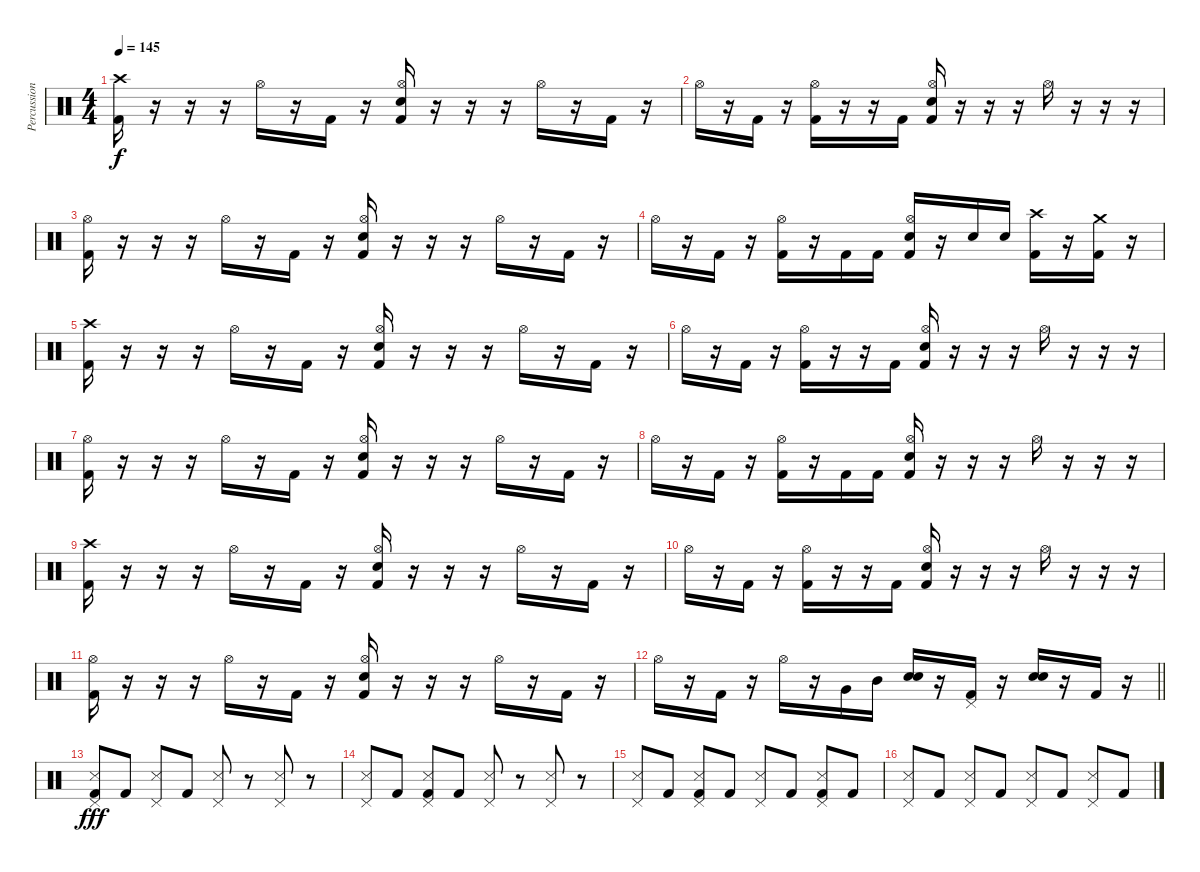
\track ("Percussions" "Percussion") {instrument percussion}
\staff {score}
\articulation defaults
\ts (4 4)
\tempo 145
\clef neutral
\ks c
("Crash high (hit)" "Kick (hit) 2").16{dy f} r.16 r.16 r.16 "Hi-Hat (open)".16 r.16 "Kick (hit) 2".16 r.16 ("Hi-Hat (open)" "Electric Snare (hit)" "Kick (hit) 2").16 r.16 r.16 r.16 "Hi-Hat (open)".16 r.16 "Kick (hit) 2".16 r.16 |
"Hi-Hat (open)".16 r.16 "Kick (hit) 2".16 r.16 ("Hi-Hat (open)" "Kick (hit) 2").16 r.16 r.16 "Kick (hit) 2".16 ("Hi-Hat (open)" "Electric Snare (hit)" "Kick (hit) 2").16 r.16 r.16 r.16 "Hi-Hat (open)".16 r.16 r.16 r.16 |
("Hi-Hat (open)" "Kick (hit) 2").16 r.16 r.16 r.16 "Hi-Hat (open)".16 r.16 "Kick (hit) 2".16 r.16 ("Hi-Hat (open)" "Electric Snare (hit)" "Kick (hit) 2").16 r.16 r.16 r.16 "Hi-Hat (open)".16 r.16 "Kick (hit) 2".16 r.16 |
"Hi-Hat (open)".16 r.16 "Kick (hit) 2".16 r.16 ("Hi-Hat (open)" "Kick (hit) 2").16 r.16 "Kick (hit) 2".16 "Kick (hit) 2".16 ("Hi-Hat (open)" "Electric Snare (hit)" "Kick (hit) 2").16 r.16 "Electric Snare (hit)".16 "Electric Snare (hit)".16 ("Crash high (hit)" "Kick (hit) 2").16 r.16 ("Crash medium (hit)" "Kick (hit) 2").16 r.16 |
("Crash high (hit)" "Kick (hit) 2").16 r.16 r.16 r.16 "Hi-Hat (open)".16 r.16 "Kick (hit) 2".16 r.16 ("Hi-Hat (open)" "Electric Snare (hit)" "Kick (hit) 2").16 r.16 r.16 r.16 "Hi-Hat (open)".16 r.16 "Kick (hit) 2".16 r.16 |
"Hi-Hat (open)".16 r.16 "Kick (hit) 2".16 r.16 ("Hi-Hat (open)" "Kick (hit) 2").16 r.16 r.16 "Kick (hit) 2".16 ("Hi-Hat (open)" "Electric Snare (hit)" "Kick (hit) 2").16 r.16 r.16 r.16 "Hi-Hat (open)".16 r.16 r.16 r.16 |
("Hi-Hat (open)" "Kick (hit) 2").16 r.16 r.16 r.16 "Hi-Hat (open)".16 r.16 "Kick (hit) 2".16 r.16 ("Hi-Hat (open)" "Electric Snare (hit)" "Kick (hit) 2").16 r.16 r.16 r.16 "Hi-Hat (open)".16 r.16 "Kick (hit) 2".16 r.16 |
"Hi-Hat (open)".16 r.16 "Kick (hit) 2".16 r.16 ("Hi-Hat (open)" "Kick (hit) 2").16 r.16 "Kick (hit) 2".16 "Kick (hit) 2".16 ("Hi-Hat (open)" "Electric Snare (hit)" "Kick (hit) 2").16 r.16 r.16 r.16 "Hi-Hat (open)".16 r.16 r.16 r.16 |
("Crash high (hit)" "Kick (hit) 2").16 r.16 r.16 r.16 "Hi-Hat (open)".16 r.16 "Kick (hit) 2".16 r.16 ("Hi-Hat (open)" "Electric Snare (hit)" "Kick (hit) 2").16 r.16 r.16 r.16 "Hi-Hat (open)".16 r.16 "Kick (hit) 2".16 r.16 |
"Hi-Hat (open)".16 r.16 "Kick (hit) 2".16 r.16 ("Hi-Hat (open)" "Kick (hit) 2").16 r.16 r.16 "Kick (hit) 2".16 ("Hi-Hat (open)" "Electric Snare (hit)" "Kick (hit) 2").16 r.16 r.16 r.16 "Hi-Hat (open)".16 r.16 r.16 r.16 |
("Hi-Hat (open)" "Kick (hit) 2").16 r.16 r.16 r.16 "Hi-Hat (open)".16 r.16 "Kick (hit) 2".16 r.16 ("Hi-Hat (open)" "Electric Snare (hit)" "Kick (hit) 2").16 r.16 r.16 r.16 "Hi-Hat (open)".16 r.16 "Kick (hit) 2".16 r.16 |
\barLineRight lightlight "Hi-Hat (open)".16
r.16 "Kick (hit) 2".16 r.16 "Hi-Hat (open)".16 r.16 "Very Low Tom (hit)".16 "Mid Tom (hit)".16 ("Snare (hit) 2" "Electric Snare (hit)").16 r.16 ("Pedal Hi-Hat (hit)" "Kick (hit) 2").16 r.16 ("Snare (hit) 2" "Electric Snare (hit)").16 r.16 "Kick (hit) 2".16 r.16 |
\section ("" "")
("Pedal Hi-Hat (hit)" "Snare (side stick) 3" "Kick (hit) 2").8{dy fff} "Kick (hit) 2".8 ("Pedal Hi-Hat (hit)" "Snare (side stick) 3").8 "Kick (hit) 2".8 ("Pedal Hi-Hat (hit)" "Snare (side stick) 3").8 r.8 ("Pedal Hi-Hat (hit)" "Snare (side stick) 3").8 r.8 |
("Pedal Hi-Hat (hit)" "Snare (side stick) 3").8 "Kick (hit) 2".8 ("Pedal Hi-Hat (hit)" "Snare (side stick) 3" "Kick (hit) 2").8 "Kick (hit) 2".8 ("Pedal Hi-Hat (hit)" "Snare (side stick) 3").8 r.8 ("Pedal Hi-Hat (hit)" "Snare (side stick) 3").8 r.8 |
("Pedal Hi-Hat (hit)" "Snare (side stick) 3").8 "Kick (hit) 2".8 ("Pedal Hi-Hat (hit)" "Snare (side stick) 3" "Kick (hit) 2").8 "Kick (hit) 2".8 ("Pedal Hi-Hat (hit)" "Snare (side stick) 3").8 "Kick (hit) 2".8 ("Pedal Hi-Hat (hit)" "Snare (side stick) 3" "Kick (hit) 2").8 "Kick (hit) 2".8 |
("Pedal Hi-Hat (hit)" "Snare (side stick) 3").8 "Kick (hit) 2".8 ("Pedal Hi-Hat (hit)" "Snare (side stick) 3").8 "Kick (hit) 2".8 ("Pedal Hi-Hat (hit)" "Snare (side stick) 3").8 "Kick (hit) 2".8 ("Pedal Hi-Hat (hit)" "Snare (side stick) 3").8 "Kick (hit) 2".8
